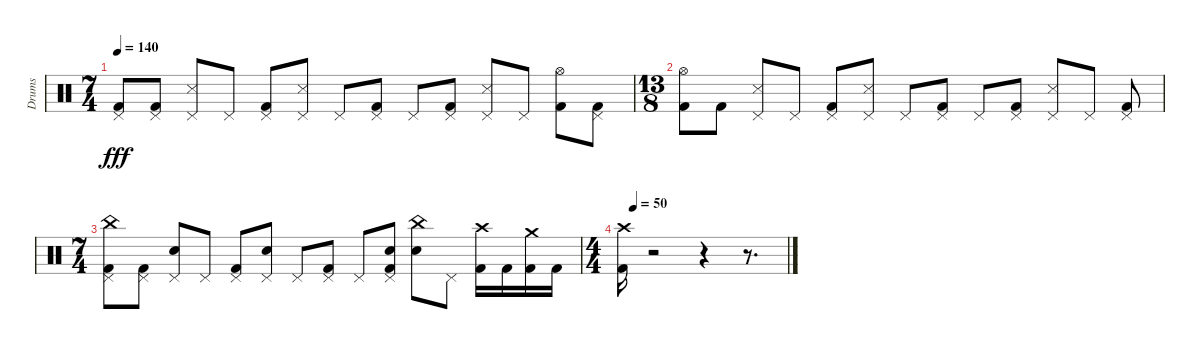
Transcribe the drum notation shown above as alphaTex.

\track ("Drums" "Drums") {instrument percussion}
\staff {score}
\articulation defaults
\ts (7 4)
\tempo 140
\clef neutral
\ks aminor
("Kick (hit) 2" "Pedal Hi-Hat (hit)").8{dy fff} ("Kick (hit) 2" "Pedal Hi-Hat (hit)").8 ("Snare (side stick) 3" "Pedal Hi-Hat (hit)").8 "Pedal Hi-Hat (hit)".8 ("Pedal Hi-Hat (hit)" "Kick (hit) 2").8 ("Snare (side stick) 3" "Pedal Hi-Hat (hit)").8 "Pedal Hi-Hat (hit)".8 ("Pedal Hi-Hat (hit)" "Kick (hit) 2").8 "Pedal Hi-Hat (hit)".8 ("Kick (hit) 2" "Pedal Hi-Hat (hit)").8 ("Snare (side stick) 3" "Pedal Hi-Hat (hit)").8 "Pedal Hi-Hat (hit)".8 ("Kick (hit) 2" "Hi-Hat (open)").8 ("Kick (hit) 2" "Pedal Hi-Hat (hit)").8 |
\ts (13 8)
("Hi-Hat (open)" "Kick (hit) 2").8 "Kick (hit) 2".8 ("Snare (side stick) 3" "Pedal Hi-Hat (hit)").8 "Pedal Hi-Hat (hit)".8 ("Pedal Hi-Hat (hit)" "Kick (hit) 2").8 ("Pedal Hi-Hat (hit)" "Snare (side stick) 3").8 "Pedal Hi-Hat (hit)".8 ("Pedal Hi-Hat (hit)" "Kick (hit) 2").8 "Pedal Hi-Hat (hit)".8 ("Pedal Hi-Hat (hit)" "Kick (hit) 2").8 ("Snare (side stick) 3" "Pedal Hi-Hat (hit)").8 "Pedal Hi-Hat (hit)".8 ("Kick (hit) 2" "Pedal Hi-Hat (hit)").8 |
\ts (7 4)
("Pedal Hi-Hat (hit)" "China (hit)" "Kick (hit) 2").8 ("Pedal Hi-Hat (hit)" "Kick (hit) 2").8 ("Pedal Hi-Hat (hit)" "Snare (hit) 2").8 "Pedal Hi-Hat (hit)".8 ("Kick (hit) 2" "Pedal Hi-Hat (hit)").8 ("Snare (hit) 2" "Pedal Hi-Hat (hit)").8 "Pedal Hi-Hat (hit)".8 ("Kick (hit) 2" "Pedal Hi-Hat (hit)").8 "Pedal Hi-Hat (hit)".8 ("Snare (hit) 2" "Pedal Hi-Hat (hit)" "Kick (hit) 2").8 ("China (hit)" "Snare (hit) 2").8 "Pedal Hi-Hat (hit)".8 ("Kick (hit) 2" "Crash high (hit)").16 "Kick (hit) 2".16 ("Crash medium (hit)" "Kick (hit) 2").16 "Kick (hit) 2".16 |
\ts (4 4)
\tempo (50 0.0625)
("Kick (hit) 2" "Crash high (hit)").16 r.2 r.4 r.8{d}
